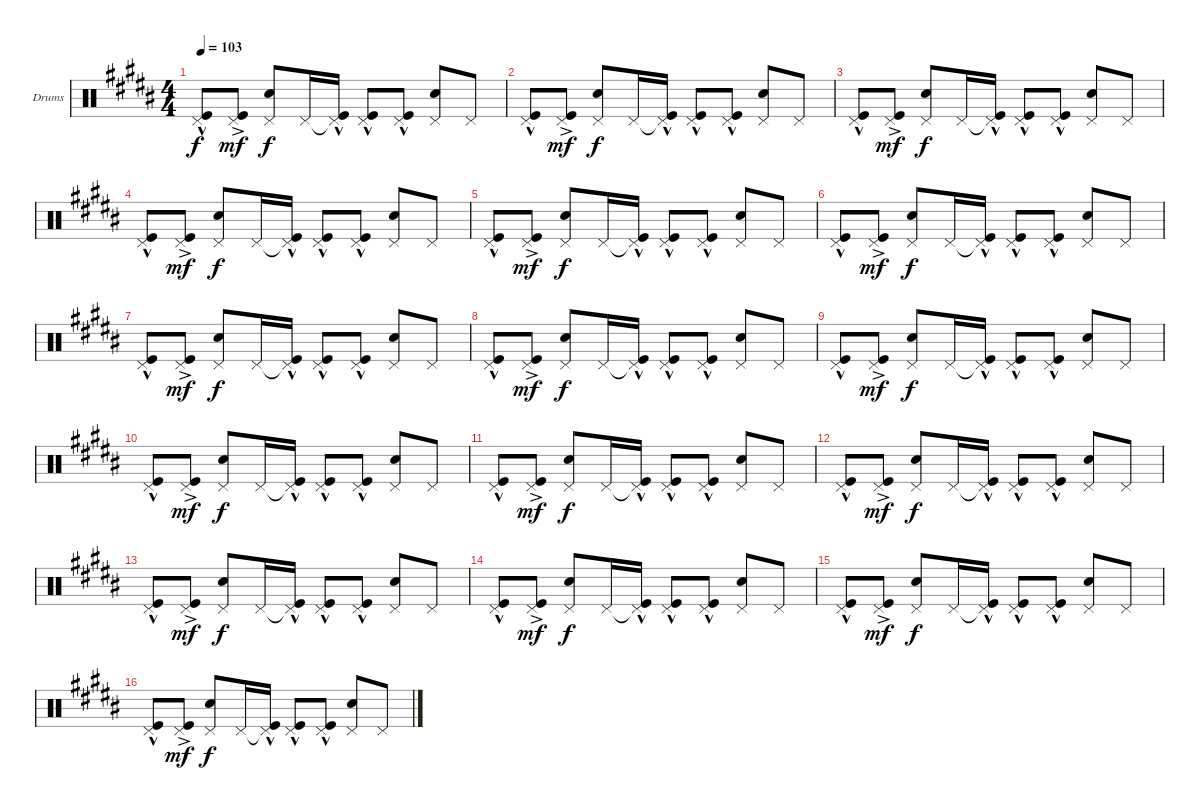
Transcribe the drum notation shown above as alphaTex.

\defaultSystemsLayout 4
\bracketExtendMode groupsimilarinstruments
\firstSystemTrackNameOrientation horizontal
\otherSystemsTrackNameOrientation horizontal
\track ("Drumkit" "Drums") {instrument percussion}
\staff {score}
\articulation defaults
\ts (4 4)
\tempo 103
\clef neutral
\ks b
("Pedal Hi-Hat (hit)" "Kick (hit)"{hac}).8{dy f} ("Kick (hit)"{ac} "Pedal Hi-Hat (hit)").8{dy mf} ("Pedal Hi-Hat (hit)" "Snare (hit) 2").8{dy f} "Pedal Hi-Hat (hit)".16 ("Pedal Hi-Hat (hit)"{t} "Kick (hit)"{hac}).16 ("Kick (hit)"{hac} "Pedal Hi-Hat (hit)").8 ("Pedal Hi-Hat (hit)" "Kick (hit)"{hac}).8 ("Pedal Hi-Hat (hit)" "Snare (hit) 2").8 "Pedal Hi-Hat (hit)".8 |
("Pedal Hi-Hat (hit)" "Kick (hit)"{hac}).8 ("Kick (hit)"{ac} "Pedal Hi-Hat (hit)").8{dy mf} ("Pedal Hi-Hat (hit)" "Snare (hit) 2").8{dy f} "Pedal Hi-Hat (hit)".16 ("Pedal Hi-Hat (hit)"{t} "Kick (hit)"{hac}).16 ("Kick (hit)"{hac} "Pedal Hi-Hat (hit)").8 ("Pedal Hi-Hat (hit)" "Kick (hit)"{hac}).8 ("Pedal Hi-Hat (hit)" "Snare (hit) 2").8 "Pedal Hi-Hat (hit)".8 |
("Pedal Hi-Hat (hit)" "Kick (hit)"{hac}).8 ("Kick (hit)"{ac} "Pedal Hi-Hat (hit)").8{dy mf} ("Pedal Hi-Hat (hit)" "Snare (hit) 2").8{dy f} "Pedal Hi-Hat (hit)".16 ("Pedal Hi-Hat (hit)"{t} "Kick (hit)"{hac}).16 ("Kick (hit)"{hac} "Pedal Hi-Hat (hit)").8 ("Pedal Hi-Hat (hit)" "Kick (hit)"{hac}).8 ("Pedal Hi-Hat (hit)" "Snare (hit) 2").8 "Pedal Hi-Hat (hit)".8 |
("Pedal Hi-Hat (hit)" "Kick (hit)"{hac}).8 ("Kick (hit)"{ac} "Pedal Hi-Hat (hit)").8{dy mf} ("Pedal Hi-Hat (hit)" "Snare (hit) 2").8{dy f} "Pedal Hi-Hat (hit)".16 ("Pedal Hi-Hat (hit)"{t} "Kick (hit)"{hac}).16 ("Kick (hit)"{hac} "Pedal Hi-Hat (hit)").8 ("Pedal Hi-Hat (hit)" "Kick (hit)"{hac}).8 ("Pedal Hi-Hat (hit)" "Snare (hit) 2").8 "Pedal Hi-Hat (hit)".8 |
("Pedal Hi-Hat (hit)" "Kick (hit)"{hac}).8 ("Kick (hit)"{ac} "Pedal Hi-Hat (hit)").8{dy mf} ("Pedal Hi-Hat (hit)" "Snare (hit) 2").8{dy f} "Pedal Hi-Hat (hit)".16 ("Pedal Hi-Hat (hit)"{t} "Kick (hit)"{hac}).16 ("Kick (hit)"{hac} "Pedal Hi-Hat (hit)").8 ("Pedal Hi-Hat (hit)" "Kick (hit)"{hac}).8 ("Pedal Hi-Hat (hit)" "Snare (hit) 2").8 "Pedal Hi-Hat (hit)".8 |
("Pedal Hi-Hat (hit)" "Kick (hit)"{hac}).8 ("Kick (hit)"{ac} "Pedal Hi-Hat (hit)").8{dy mf} ("Pedal Hi-Hat (hit)" "Snare (hit) 2").8{dy f} "Pedal Hi-Hat (hit)".16 ("Pedal Hi-Hat (hit)"{t} "Kick (hit)"{hac}).16 ("Kick (hit)"{hac} "Pedal Hi-Hat (hit)").8 ("Pedal Hi-Hat (hit)" "Kick (hit)"{hac}).8 ("Pedal Hi-Hat (hit)" "Snare (hit) 2").8 "Pedal Hi-Hat (hit)".8 |
("Pedal Hi-Hat (hit)" "Kick (hit)"{hac}).8 ("Kick (hit)"{ac} "Pedal Hi-Hat (hit)").8{dy mf} ("Pedal Hi-Hat (hit)" "Snare (hit) 2").8{dy f} "Pedal Hi-Hat (hit)".16 ("Pedal Hi-Hat (hit)"{t} "Kick (hit)"{hac}).16 ("Kick (hit)"{hac} "Pedal Hi-Hat (hit)").8 ("Pedal Hi-Hat (hit)" "Kick (hit)"{hac}).8 ("Pedal Hi-Hat (hit)" "Snare (hit) 2").8 "Pedal Hi-Hat (hit)".8 |
("Pedal Hi-Hat (hit)" "Kick (hit)"{hac}).8 ("Kick (hit)"{ac} "Pedal Hi-Hat (hit)").8{dy mf} ("Pedal Hi-Hat (hit)" "Snare (hit) 2").8{dy f} "Pedal Hi-Hat (hit)".16 ("Pedal Hi-Hat (hit)"{t} "Kick (hit)"{hac}).16 ("Kick (hit)"{hac} "Pedal Hi-Hat (hit)").8 ("Pedal Hi-Hat (hit)" "Kick (hit)"{hac}).8 ("Pedal Hi-Hat (hit)" "Snare (hit) 2").8 "Pedal Hi-Hat (hit)".8 |
("Pedal Hi-Hat (hit)" "Kick (hit)"{hac}).8 ("Kick (hit)"{ac} "Pedal Hi-Hat (hit)").8{dy mf} ("Pedal Hi-Hat (hit)" "Snare (hit) 2").8{dy f} "Pedal Hi-Hat (hit)".16 ("Pedal Hi-Hat (hit)"{t} "Kick (hit)"{hac}).16 ("Kick (hit)"{hac} "Pedal Hi-Hat (hit)").8 ("Pedal Hi-Hat (hit)" "Kick (hit)"{hac}).8 ("Pedal Hi-Hat (hit)" "Snare (hit) 2").8 "Pedal Hi-Hat (hit)".8 |
("Pedal Hi-Hat (hit)" "Kick (hit)"{hac}).8 ("Kick (hit)"{ac} "Pedal Hi-Hat (hit)").8{dy mf} ("Pedal Hi-Hat (hit)" "Snare (hit) 2").8{dy f} "Pedal Hi-Hat (hit)".16 ("Pedal Hi-Hat (hit)"{t} "Kick (hit)"{hac}).16 ("Kick (hit)"{hac} "Pedal Hi-Hat (hit)").8 ("Pedal Hi-Hat (hit)" "Kick (hit)"{hac}).8 ("Pedal Hi-Hat (hit)" "Snare (hit) 2").8 "Pedal Hi-Hat (hit)".8 |
("Pedal Hi-Hat (hit)" "Kick (hit)"{hac}).8 ("Kick (hit)"{ac} "Pedal Hi-Hat (hit)").8{dy mf} ("Pedal Hi-Hat (hit)" "Snare (hit) 2").8{dy f} "Pedal Hi-Hat (hit)".16 ("Pedal Hi-Hat (hit)"{t} "Kick (hit)"{hac}).16 ("Kick (hit)"{hac} "Pedal Hi-Hat (hit)").8 ("Pedal Hi-Hat (hit)" "Kick (hit)"{hac}).8 ("Pedal Hi-Hat (hit)" "Snare (hit) 2").8 "Pedal Hi-Hat (hit)".8 |
("Pedal Hi-Hat (hit)" "Kick (hit)"{hac}).8 ("Kick (hit)"{ac} "Pedal Hi-Hat (hit)").8{dy mf} ("Pedal Hi-Hat (hit)" "Snare (hit) 2").8{dy f} "Pedal Hi-Hat (hit)".16 ("Pedal Hi-Hat (hit)"{t} "Kick (hit)"{hac}).16 ("Kick (hit)"{hac} "Pedal Hi-Hat (hit)").8 ("Pedal Hi-Hat (hit)" "Kick (hit)"{hac}).8 ("Pedal Hi-Hat (hit)" "Snare (hit) 2").8 "Pedal Hi-Hat (hit)".8 |
("Pedal Hi-Hat (hit)" "Kick (hit)"{hac}).8 ("Kick (hit)"{ac} "Pedal Hi-Hat (hit)").8{dy mf} ("Pedal Hi-Hat (hit)" "Snare (hit) 2").8{dy f} "Pedal Hi-Hat (hit)".16 ("Pedal Hi-Hat (hit)"{t} "Kick (hit)"{hac}).16 ("Kick (hit)"{hac} "Pedal Hi-Hat (hit)").8 ("Pedal Hi-Hat (hit)" "Kick (hit)"{hac}).8 ("Pedal Hi-Hat (hit)" "Snare (hit) 2").8 "Pedal Hi-Hat (hit)".8 |
("Pedal Hi-Hat (hit)" "Kick (hit)"{hac}).8 ("Kick (hit)"{ac} "Pedal Hi-Hat (hit)").8{dy mf} ("Pedal Hi-Hat (hit)" "Snare (hit) 2").8{dy f} "Pedal Hi-Hat (hit)".16 ("Pedal Hi-Hat (hit)"{t} "Kick (hit)"{hac}).16 ("Kick (hit)"{hac} "Pedal Hi-Hat (hit)").8 ("Pedal Hi-Hat (hit)" "Kick (hit)"{hac}).8 ("Pedal Hi-Hat (hit)" "Snare (hit) 2").8 "Pedal Hi-Hat (hit)".8 |
("Pedal Hi-Hat (hit)" "Kick (hit)"{hac}).8 ("Kick (hit)"{ac} "Pedal Hi-Hat (hit)").8{dy mf} ("Pedal Hi-Hat (hit)" "Snare (hit) 2").8{dy f} "Pedal Hi-Hat (hit)".16 ("Pedal Hi-Hat (hit)"{t} "Kick (hit)"{hac}).16 ("Kick (hit)"{hac} "Pedal Hi-Hat (hit)").8 ("Pedal Hi-Hat (hit)" "Kick (hit)"{hac}).8 ("Pedal Hi-Hat (hit)" "Snare (hit) 2").8 "Pedal Hi-Hat (hit)".8 |
("Pedal Hi-Hat (hit)" "Kick (hit)"{hac}).8 ("Kick (hit)"{ac} "Pedal Hi-Hat (hit)").8{dy mf} ("Pedal Hi-Hat (hit)" "Snare (hit) 2").8{dy f} "Pedal Hi-Hat (hit)".16 ("Pedal Hi-Hat (hit)"{t} "Kick (hit)"{hac}).16 ("Kick (hit)"{hac} "Pedal Hi-Hat (hit)").8 ("Pedal Hi-Hat (hit)" "Kick (hit)"{hac}).8 ("Pedal Hi-Hat (hit)" "Snare (hit) 2").8 "Pedal Hi-Hat (hit)".8
